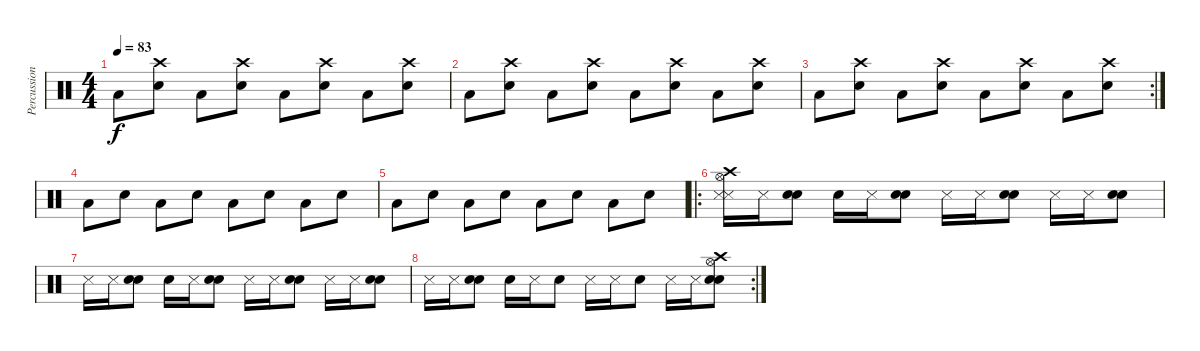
\track ("Percussion" "Percussion") {instrument percussion}
\staff {score}
\articulation defaults
\ts (4 4)
\tempo 83
\clef neutral
\ks c "Low Tom (hit)".8{dy f}
("Crash high (hit)" "Electric Snare (hit)").8 "Low Tom (hit)".8 ("Crash high (hit)" "Electric Snare (hit)").8 "Low Tom (hit)".8 ("Crash high (hit)" "Electric Snare (hit)").8 "Low Tom (hit)".8 ("Crash high (hit)" "Electric Snare (hit)").8 |
"Low Tom (hit)".8 ("Crash high (hit)" "Electric Snare (hit)").8 "Low Tom (hit)".8 ("Crash high (hit)" "Electric Snare (hit)").8 "Low Tom (hit)".8 ("Crash high (hit)" "Electric Snare (hit)").8 "Low Tom (hit)".8 ("Crash high (hit)" "Electric Snare (hit)").8 |
\rc 2 "Low Tom (hit)".8
("Crash high (hit)" "Electric Snare (hit)").8 "Low Tom (hit)".8 ("Crash high (hit)" "Electric Snare (hit)").8 "Low Tom (hit)".8 ("Crash high (hit)" "Electric Snare (hit)").8 "Low Tom (hit)".8 ("Crash high (hit)" "Electric Snare (hit)").8 |
"Low Tom (hit)".8 "Electric Snare (hit)".8 "Low Tom (hit)".8 "Electric Snare (hit)".8 "Low Tom (hit)".8 "Electric Snare (hit)".8 "Low Tom (hit)".8 "Electric Snare (hit)".8 |
"Low Tom (hit)".8 "Electric Snare (hit)".8 "Low Tom (hit)".8 "Electric Snare (hit)".8 "Low Tom (hit)".8 "Electric Snare (hit)".8 "Low Tom (hit)".8 "Electric Snare (hit)".8 |
\ro
("Snare (side stick) 3" "Crash high (hit)" "Hi-Hat (open)" "Snare (side stick) 3").16 "Snare (side stick) 3".16 ("Snare (hit) 2" "Electric Snare (hit)").8 "Hand Clap (hit)".16 "Snare (side stick) 3".16 ("Snare (hit) 2" "Electric Snare (hit)").8 "Snare (side stick) 3".16 "Snare (side stick) 3".16 ("Snare (hit) 2" "Electric Snare (hit)").8 "Snare (side stick) 3".16 "Snare (side stick) 3".16 ("Snare (hit) 2" "Electric Snare (hit)").8 |
"Snare (side stick) 3".16 "Snare (side stick) 3".16 ("Snare (hit) 2" "Electric Snare (hit)").8 "Hand Clap (hit)".16 "Snare (side stick) 3".16 ("Snare (hit) 2" "Electric Snare (hit)").8 "Snare (side stick) 3".16 "Snare (side stick) 3".16 ("Snare (hit) 2" "Electric Snare (hit)").8 "Snare (side stick) 3".16 "Snare (side stick) 3".16 ("Snare (hit) 2" "Electric Snare (hit)").8 |
\rc 2 "Snare (side stick) 3".16 "Snare (side stick) 3".16
("Snare (hit) 2" "Electric Snare (hit)").8 "Hand Clap (hit)".16 "Snare (side stick) 3".16 "Electric Snare (hit)".8 "Snare (side stick) 3".16 "Snare (side stick) 3".16 "Electric Snare (hit)".8 "Snare (side stick) 3".16 "Snare (side stick) 3".16 ("Crash high (hit)" "Hi-Hat (open)" "Snare (hit) 2" "Electric Snare (hit)").8
